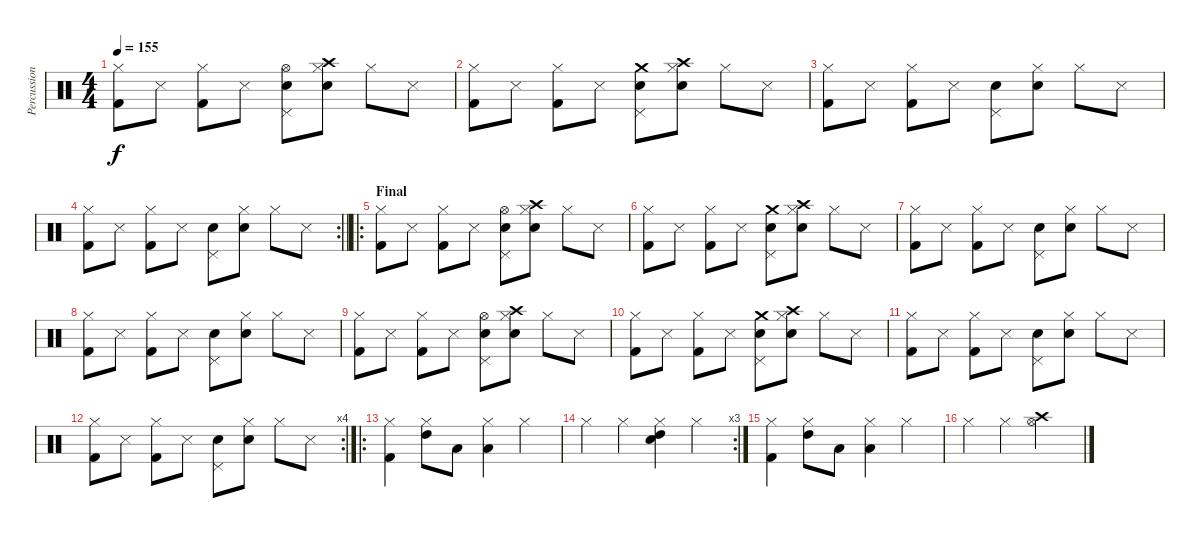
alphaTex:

\track ("Percussion" "Percussion") {instrument percussion}
\staff {score}
\articulation defaults
\ts (4 4)
\tempo 155
\clef neutral
\ks c
("Hi-Hat (closed)" "Kick (hit) 2").8{dy f} "Snare (side stick) 3".8 ("Hi-Hat (closed)" "Kick (hit) 2").8 "Snare (side stick) 3".8 ("Hi-Hat (open)" "Pedal Hi-Hat (hit)" "Electric Snare (hit)").8 ("Crash high (hit)" "Hi-Hat (closed)" "Electric Snare (hit)").8 "Hi-Hat (closed)".8 "Snare (side stick) 3".8 |
("Hi-Hat (closed)" "Kick (hit) 2").8 "Snare (side stick) 3".8 ("Hi-Hat (closed)" "Kick (hit) 2").8 "Snare (side stick) 3".8 ("Crash medium (hit)" "Pedal Hi-Hat (hit)" "Electric Snare (hit)").8 ("Crash high (hit)" "Hi-Hat (closed)" "Electric Snare (hit)").8 "Hi-Hat (closed)".8 "Snare (side stick) 3".8 |
("Hi-Hat (closed)" "Kick (hit) 2").8 "Snare (side stick) 3".8 ("Hi-Hat (closed)" "Kick (hit) 2").8 "Snare (side stick) 3".8 ("Pedal Hi-Hat (hit)" "Electric Snare (hit)").8 ("Hi-Hat (closed)" "Electric Snare (hit)").8 "Hi-Hat (closed)".8 "Snare (side stick) 3".8 |
\rc 2
\barLineRight lightlight
("Hi-Hat (closed)" "Kick (hit) 2").8 "Snare (side stick) 3".8 ("Hi-Hat (closed)" "Kick (hit) 2").8 "Snare (side stick) 3".8 ("Pedal Hi-Hat (hit)" "Electric Snare (hit)").8 ("Hi-Hat (closed)" "Electric Snare (hit)").8 "Hi-Hat (closed)".8 "Snare (side stick) 3".8 |
\ro
\section ("" "Final")
("Hi-Hat (closed)" "Kick (hit) 2").8 "Snare (side stick) 3".8 ("Hi-Hat (closed)" "Kick (hit) 2").8 "Snare (side stick) 3".8 ("Hi-Hat (open)" "Pedal Hi-Hat (hit)" "Electric Snare (hit)").8 ("Crash high (hit)" "Hi-Hat (closed)" "Electric Snare (hit)").8 "Hi-Hat (closed)".8 "Snare (side stick) 3".8 |
("Hi-Hat (closed)" "Kick (hit) 2").8 "Snare (side stick) 3".8 ("Hi-Hat (closed)" "Kick (hit) 2").8 "Snare (side stick) 3".8 ("Crash medium (hit)" "Pedal Hi-Hat (hit)" "Electric Snare (hit)").8 ("Crash high (hit)" "Hi-Hat (closed)" "Electric Snare (hit)").8 "Hi-Hat (closed)".8 "Snare (side stick) 3".8 |
("Hi-Hat (closed)" "Kick (hit) 2").8 "Snare (side stick) 3".8 ("Hi-Hat (closed)" "Kick (hit) 2").8 "Snare (side stick) 3".8 ("Pedal Hi-Hat (hit)" "Electric Snare (hit)").8 ("Hi-Hat (closed)" "Electric Snare (hit)").8 "Hi-Hat (closed)".8 "Snare (side stick) 3".8 |
("Hi-Hat (closed)" "Kick (hit) 2").8 "Snare (side stick) 3".8 ("Hi-Hat (closed)" "Kick (hit) 2").8 "Snare (side stick) 3".8 ("Pedal Hi-Hat (hit)" "Electric Snare (hit)").8 ("Hi-Hat (closed)" "Electric Snare (hit)").8 "Hi-Hat (closed)".8 "Snare (side stick) 3".8 |
("Hi-Hat (closed)" "Kick (hit) 2").8 "Snare (side stick) 3".8 ("Hi-Hat (closed)" "Kick (hit) 2").8 "Snare (side stick) 3".8 ("Hi-Hat (open)" "Pedal Hi-Hat (hit)" "Electric Snare (hit)").8 ("Crash high (hit)" "Hi-Hat (closed)" "Electric Snare (hit)").8 "Hi-Hat (closed)".8 "Snare (side stick) 3".8 |
("Hi-Hat (closed)" "Kick (hit) 2").8 "Snare (side stick) 3".8 ("Hi-Hat (closed)" "Kick (hit) 2").8 "Snare (side stick) 3".8 ("Crash medium (hit)" "Pedal Hi-Hat (hit)" "Electric Snare (hit)").8 ("Crash high (hit)" "Hi-Hat (closed)" "Electric Snare (hit)").8 "Hi-Hat (closed)".8 "Snare (side stick) 3".8 |
("Hi-Hat (closed)" "Kick (hit) 2").8 "Snare (side stick) 3".8 ("Hi-Hat (closed)" "Kick (hit) 2").8 "Snare (side stick) 3".8 ("Pedal Hi-Hat (hit)" "Electric Snare (hit)").8 ("Hi-Hat (closed)" "Electric Snare (hit)").8 "Hi-Hat (closed)".8 "Snare (side stick) 3".8 |
\rc 4
("Hi-Hat (closed)" "Kick (hit) 2").8 "Snare (side stick) 3".8 ("Hi-Hat (closed)" "Kick (hit) 2").8 "Snare (side stick) 3".8 ("Pedal Hi-Hat (hit)" "Electric Snare (hit)").8 ("Hi-Hat (closed)" "Electric Snare (hit)").8 "Hi-Hat (closed)".8 "Snare (side stick) 3".8 |
\ro
("Hi-Hat (closed)" "Kick (hit) 2").4 ("High Tom (hit)" "Hi-Hat (closed)").8 "Low Tom (hit)".8 ("Hi-Hat (closed)" "Low Tom (hit)").4 "Hi-Hat (closed)".4 |
\rc 3 "Hi-Hat (closed)".4 "Hi-Hat (closed)".4
("High Tom (hit)" "Electric Snare (hit)" "Hi-Hat (closed)").4 "Hi-Hat (closed)".4 |
("Hi-Hat (closed)" "Kick (hit) 2").4 ("High Tom (hit)" "Hi-Hat (closed)").8 "Low Tom (hit)".8 ("Hi-Hat (closed)" "Low Tom (hit)").4 "Hi-Hat (closed)".4 |
"Hi-Hat (closed)".4 "Hi-Hat (closed)".4 ("Hi-Hat (open)" "Crash high (hit)").2
